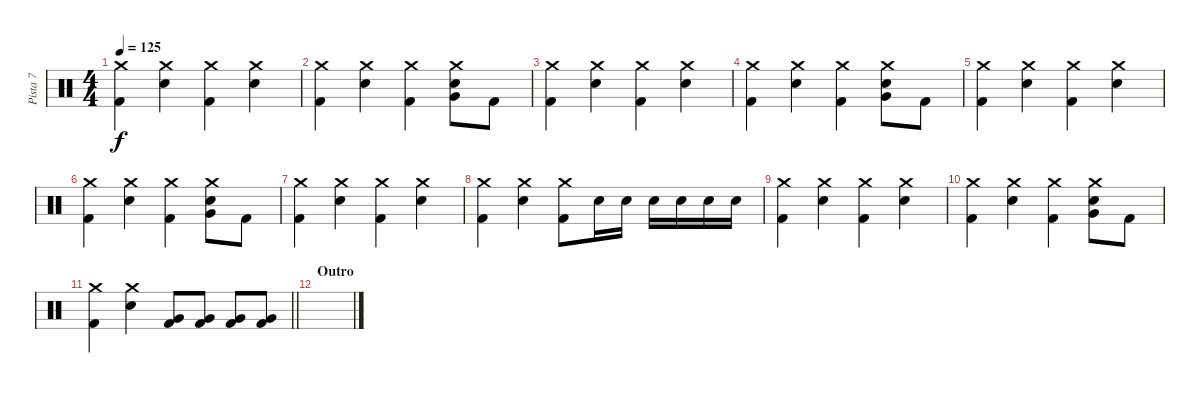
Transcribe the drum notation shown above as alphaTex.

\track ("Pista 7" "Pista 7") {instrument percussion}
\staff {score}
\articulation defaults
\ts (4 4)
\tempo 125
\clef neutral
\ks c
("Crash medium (hit)" "Kick (hit) 2").4{dy f} ("Crash medium (hit)" "Electric Snare (hit)").4 ("Crash medium (hit)" "Kick (hit) 2").4 ("Crash medium (hit)" "Electric Snare (hit)").4 |
("Crash medium (hit)" "Kick (hit) 2").4 ("Crash medium (hit)" "Electric Snare (hit)").4 ("Crash medium (hit)" "Kick (hit) 2").4 ("Crash medium (hit)" "Very Low Tom (hit)" "Electric Snare (hit)").8 "Kick (hit) 2".8 |
("Crash medium (hit)" "Kick (hit) 2").4 ("Crash medium (hit)" "Electric Snare (hit)").4 ("Crash medium (hit)" "Kick (hit) 2").4 ("Crash medium (hit)" "Electric Snare (hit)").4 |
("Crash medium (hit)" "Kick (hit) 2").4 ("Crash medium (hit)" "Electric Snare (hit)").4 ("Crash medium (hit)" "Kick (hit) 2").4 ("Crash medium (hit)" "Very Low Tom (hit)" "Electric Snare (hit)").8 "Kick (hit) 2".8 |
("Crash medium (hit)" "Kick (hit) 2").4 ("Crash medium (hit)" "Electric Snare (hit)").4 ("Crash medium (hit)" "Kick (hit) 2").4 ("Crash medium (hit)" "Electric Snare (hit)").4 |
("Crash medium (hit)" "Kick (hit) 2").4 ("Crash medium (hit)" "Electric Snare (hit)").4 ("Crash medium (hit)" "Kick (hit) 2").4 ("Crash medium (hit)" "Very Low Tom (hit)" "Electric Snare (hit)").8 "Kick (hit) 2".8 |
("Crash medium (hit)" "Kick (hit) 2").4 ("Crash medium (hit)" "Electric Snare (hit)").4 ("Crash medium (hit)" "Kick (hit) 2").4 ("Crash medium (hit)" "Electric Snare (hit)").4 |
("Crash medium (hit)" "Kick (hit) 2").4 ("Crash medium (hit)" "Electric Snare (hit)").4 ("Crash medium (hit)" "Kick (hit) 2").8 "Electric Snare (hit)".16 "Electric Snare (hit)".16 "Electric Snare (hit)".16 "Electric Snare (hit)".16 "Electric Snare (hit)".16 "Electric Snare (hit)".16 |
("Crash medium (hit)" "Kick (hit) 2").4 ("Crash medium (hit)" "Electric Snare (hit)").4 ("Crash medium (hit)" "Kick (hit) 2").4 ("Crash medium (hit)" "Electric Snare (hit)").4 |
("Crash medium (hit)" "Kick (hit) 2").4 ("Crash medium (hit)" "Electric Snare (hit)").4 ("Crash medium (hit)" "Kick (hit) 2").4 ("Crash medium (hit)" "Very Low Tom (hit)" "Electric Snare (hit)").8 "Kick (hit) 2".8 |
\barLineRight lightlight
("Crash medium (hit)" "Kick (hit) 2").4 ("Crash medium (hit)" "Electric Snare (hit)").4 ("Very Low Tom (hit)" "Kick (hit) 2").8 ("Very Low Tom (hit)" "Kick (hit) 2").8 ("Very Low Tom (hit)" "Kick (hit) 2").8 ("Very Low Tom (hit)" "Kick (hit) 2").8 |
\section ("" "Outro")
